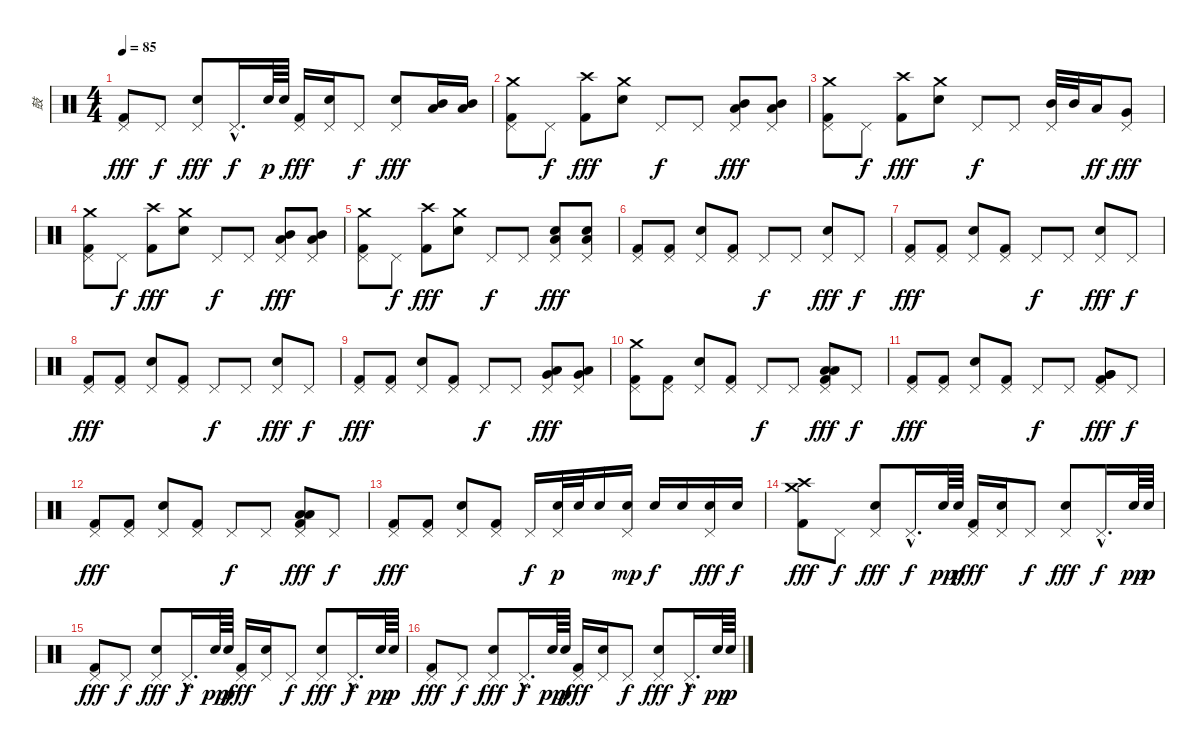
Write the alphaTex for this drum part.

\track ("鼓" "鼓") {instrument percussion}
\staff {score}
\articulation defaults
\ts (4 4)
\tempo 85
\clef neutral
\ks c
("Pedal Hi-Hat (hit)" "Kick (hit) 2").8{dy fff} "Pedal Hi-Hat (hit)".8{dy f} ("Pedal Hi-Hat (hit)" "Snare (hit) 2").8{dy fff} "Pedal Hi-Hat (hit)"{hac}.16{d dy f} "Snare (hit) 2".64{dy p} "Snare (hit) 2".64 ("Pedal Hi-Hat (hit)" "Kick (hit) 2").16{dy fff} ("Pedal Hi-Hat (hit)" "Snare (hit) 2").16 "Pedal Hi-Hat (hit)".8{dy f} ("Pedal Hi-Hat (hit)" "Snare (hit) 2").8{dy fff} ("Mid Tom (hit)" "Low Tom (hit)").16 ("Mid Tom (hit)" "Low Tom (hit)").16 |
("Pedal Hi-Hat (hit)" "Crash medium (hit)" "Kick (hit) 2").8 "Pedal Hi-Hat (hit)".8{dy f} ("Crash high (hit)" "Kick (hit) 2").8{dy fff} ("Crash medium (hit)" "Snare (hit) 2").8 "Pedal Hi-Hat (hit)".8{dy f} "Pedal Hi-Hat (hit)".8 ("Pedal Hi-Hat (hit)" "Mid Tom (hit)" "Low Tom (hit)").8{dy fff} ("Pedal Hi-Hat (hit)" "Mid Tom (hit)" "Low Tom (hit)").8 |
("Pedal Hi-Hat (hit)" "Crash medium (hit)" "Kick (hit) 2").8 "Pedal Hi-Hat (hit)".8{dy f} ("Crash high (hit)" "Kick (hit) 2").8{dy fff} ("Crash medium (hit)" "Snare (hit) 2").8 "Pedal Hi-Hat (hit)".8{dy f} "Pedal Hi-Hat (hit)".8 ("Pedal Hi-Hat (hit)" "Mid Tom (hit)").32 "Mid Tom (hit)".32 "Low Tom (hit)".16{dy ff} ("Pedal Hi-Hat (hit)" "Very Low Tom (hit)").8{dy fff} |
("Pedal Hi-Hat (hit)" "Crash medium (hit)" "Kick (hit) 2").8 "Pedal Hi-Hat (hit)".8{dy f} ("Crash high (hit)" "Kick (hit) 2").8{dy fff} ("Crash medium (hit)" "Snare (hit) 2").8 "Pedal Hi-Hat (hit)".8{dy f} "Pedal Hi-Hat (hit)".8 ("Pedal Hi-Hat (hit)" "Mid Tom (hit)" "Low Tom (hit)").8{dy fff} ("Pedal Hi-Hat (hit)" "Mid Tom (hit)" "Low Tom (hit)").8 |
("Pedal Hi-Hat (hit)" "Crash medium (hit)" "Kick (hit) 2").8 "Pedal Hi-Hat (hit)".8{dy f} ("Crash high (hit)" "Kick (hit) 2").8{dy fff} ("Crash medium (hit)" "Snare (hit) 2").8 "Pedal Hi-Hat (hit)".8{dy f} "Pedal Hi-Hat (hit)".8 ("Pedal Hi-Hat (hit)" "Snare (hit) 2" "Low Tom (hit)").8{dy fff} ("Pedal Hi-Hat (hit)" "Snare (hit) 2" "Low Tom (hit)").8 |
("Pedal Hi-Hat (hit)" "Kick (hit) 2").8 ("Pedal Hi-Hat (hit)" "Kick (hit) 2").8 ("Pedal Hi-Hat (hit)" "Snare (hit) 2").8 ("Pedal Hi-Hat (hit)" "Kick (hit) 2").8 "Pedal Hi-Hat (hit)".8{dy f} "Pedal Hi-Hat (hit)".8 ("Pedal Hi-Hat (hit)" "Snare (hit) 2").8{dy fff} "Pedal Hi-Hat (hit)".8{dy f} |
("Pedal Hi-Hat (hit)" "Kick (hit) 2").8{dy fff} ("Pedal Hi-Hat (hit)" "Kick (hit) 2").8 ("Pedal Hi-Hat (hit)" "Snare (hit) 2").8 ("Pedal Hi-Hat (hit)" "Kick (hit) 2").8 "Pedal Hi-Hat (hit)".8{dy f} "Pedal Hi-Hat (hit)".8 ("Pedal Hi-Hat (hit)" "Snare (hit) 2").8{dy fff} "Pedal Hi-Hat (hit)".8{dy f} |
("Pedal Hi-Hat (hit)" "Kick (hit) 2").8{dy fff} ("Pedal Hi-Hat (hit)" "Kick (hit) 2").8 ("Pedal Hi-Hat (hit)" "Snare (hit) 2").8 ("Pedal Hi-Hat (hit)" "Kick (hit) 2").8 "Pedal Hi-Hat (hit)".8{dy f} "Pedal Hi-Hat (hit)".8 ("Pedal Hi-Hat (hit)" "Snare (hit) 2").8{dy fff} "Pedal Hi-Hat (hit)".8{dy f} |
("Pedal Hi-Hat (hit)" "Kick (hit) 2").8{dy fff} ("Pedal Hi-Hat (hit)" "Kick (hit) 2").8 ("Pedal Hi-Hat (hit)" "Snare (hit) 2").8 ("Pedal Hi-Hat (hit)" "Kick (hit) 2").8 "Pedal Hi-Hat (hit)".8{dy f} "Pedal Hi-Hat (hit)".8 ("Pedal Hi-Hat (hit)" "Low Tom (hit)" "Very Low Tom (hit)").8{dy fff} ("Pedal Hi-Hat (hit)" "Low Tom (hit)" "Very Low Tom (hit)").8 |
("Pedal Hi-Hat (hit)" "Crash medium (hit)" "Kick (hit) 2").8 ("Pedal Hi-Hat (hit)" "Kick (hit) 2").8 ("Pedal Hi-Hat (hit)" "Snare (hit) 2").8 ("Pedal Hi-Hat (hit)" "Kick (hit) 2").8 "Pedal Hi-Hat (hit)".8{dy f} "Pedal Hi-Hat (hit)".8 ("Pedal Hi-Hat (hit)" "Low Tom (hit)" "Low Tom (hit)" "Kick (hit) 2").8{dy fff} "Pedal Hi-Hat (hit)".8{dy f} |
("Pedal Hi-Hat (hit)" "Kick (hit) 2").8{dy fff} ("Pedal Hi-Hat (hit)" "Kick (hit) 2").8 ("Pedal Hi-Hat (hit)" "Snare (hit) 2").8 ("Pedal Hi-Hat (hit)" "Kick (hit) 2").8 "Pedal Hi-Hat (hit)".8{dy f} "Pedal Hi-Hat (hit)".8 ("Pedal Hi-Hat (hit)" "Very Low Tom (hit)" "Very Low Tom (hit)" "Kick (hit) 2").8{dy fff} "Pedal Hi-Hat (hit)".8{dy f} |
("Pedal Hi-Hat (hit)" "Kick (hit) 2").8{dy fff} ("Pedal Hi-Hat (hit)" "Kick (hit) 2").8 ("Pedal Hi-Hat (hit)" "Snare (hit) 2").8 ("Pedal Hi-Hat (hit)" "Kick (hit) 2").8 "Pedal Hi-Hat (hit)".8{dy f} "Pedal Hi-Hat (hit)".8 ("Pedal Hi-Hat (hit)" "Low Tom (hit)" "Low Tom (hit)" "Kick (hit) 2").8{dy fff} "Pedal Hi-Hat (hit)".8{dy f} |
("Pedal Hi-Hat (hit)" "Kick (hit) 2").8{dy fff} ("Pedal Hi-Hat (hit)" "Kick (hit) 2").8 ("Pedal Hi-Hat (hit)" "Snare (hit) 2").8 ("Pedal Hi-Hat (hit)" "Kick (hit) 2").8 "Pedal Hi-Hat (hit)".16{dy f} ("Pedal Hi-Hat (hit)" "Snare (hit) 2").32{dy p} "Snare (hit) 2".32 "Snare (hit) 2".16 ("Pedal Hi-Hat (hit)" "Snare (hit) 2").16{dy mp} "Snare (hit) 2".16{dy f} "Snare (hit) 2".16 ("Pedal Hi-Hat (hit)" "Snare (hit) 2").16{dy fff} "Snare (hit) 2".16{dy f} |
("Crash medium (hit)" "Crash high (hit)" "Kick (hit) 2").8{dy fff} "Pedal Hi-Hat (hit)".8{dy f} ("Pedal Hi-Hat (hit)" "Snare (hit) 2").8{dy fff} "Pedal Hi-Hat (hit)"{hac}.16{d dy f} "Snare (hit) 2".64{dy pp} "Snare (hit) 2".64{dy p} ("Pedal Hi-Hat (hit)" "Kick (hit) 2").16{dy fff} ("Pedal Hi-Hat (hit)" "Snare (hit) 2").16 "Pedal Hi-Hat (hit)".8{dy f} ("Pedal Hi-Hat (hit)" "Snare (hit) 2").8{dy fff} "Pedal Hi-Hat (hit)"{hac}.16{d dy f} "Snare (hit) 2".64{dy pp} "Snare (hit) 2".64{dy p} |
("Pedal Hi-Hat (hit)" "Kick (hit) 2").8{dy fff} "Pedal Hi-Hat (hit)".8{dy f} ("Pedal Hi-Hat (hit)" "Snare (hit) 2").8{dy fff} "Pedal Hi-Hat (hit)"{hac}.16{d dy f} "Snare (hit) 2".64{dy pp} "Snare (hit) 2".64{dy p} ("Pedal Hi-Hat (hit)" "Kick (hit) 2").16{dy fff} ("Pedal Hi-Hat (hit)" "Snare (hit) 2").16 "Pedal Hi-Hat (hit)".8{dy f} ("Pedal Hi-Hat (hit)" "Snare (hit) 2").8{dy fff} "Pedal Hi-Hat (hit)"{hac}.16{d dy f} "Snare (hit) 2".64{dy pp} "Snare (hit) 2".64{dy p} |
("Pedal Hi-Hat (hit)" "Kick (hit) 2").8{dy fff} "Pedal Hi-Hat (hit)".8{dy f} ("Pedal Hi-Hat (hit)" "Snare (hit) 2").8{dy fff} "Pedal Hi-Hat (hit)"{hac}.16{d dy f} "Snare (hit) 2".64{dy pp} "Snare (hit) 2".64{dy p} ("Pedal Hi-Hat (hit)" "Kick (hit) 2").16{dy fff} ("Pedal Hi-Hat (hit)" "Snare (hit) 2").16 "Pedal Hi-Hat (hit)".8{dy f} ("Pedal Hi-Hat (hit)" "Snare (hit) 2").8{dy fff} "Pedal Hi-Hat (hit)"{hac}.16{d dy f} "Snare (hit) 2".64{dy pp} "Snare (hit) 2".64{dy p}
